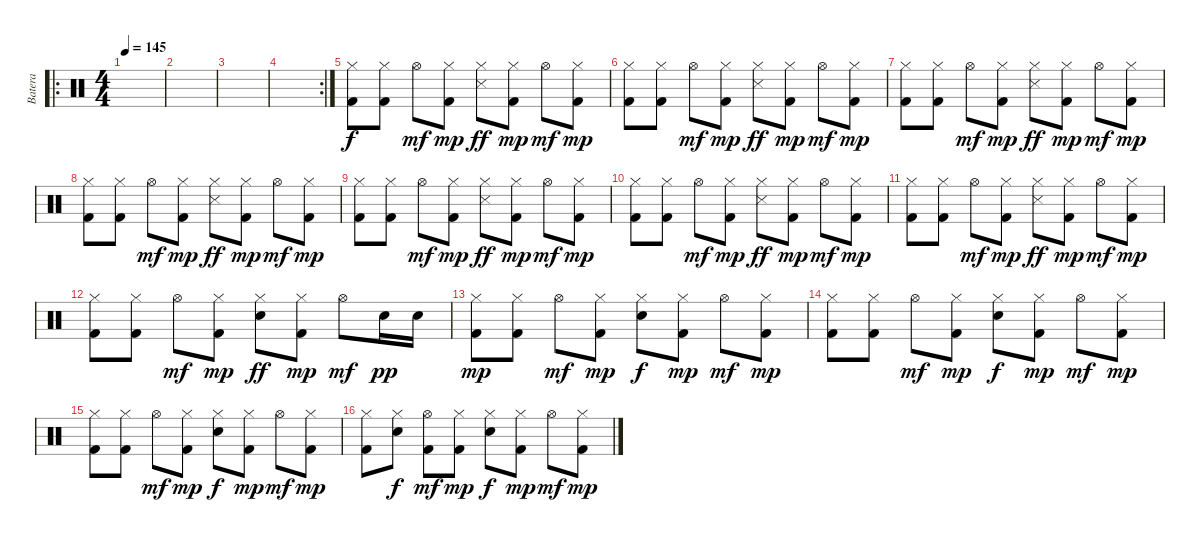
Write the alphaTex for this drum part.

\track ("Batera" "Batera") {instrument percussion}
\staff {score}
\articulation defaults
\ro
\ts (4 4)
\tempo 145
\clef neutral
\ks c
|
|
|
\rc 2
|
("Hi-Hat (closed)" "Kick (hit) 2").8 ("Hi-Hat (closed)" "Kick (hit) 2").8 "Hi-Hat (open)".8{dy mf} ("Hi-Hat (closed)" "Kick (hit) 2").8{dy mp} ("Hi-Hat (closed)" "Snare (side stick) 3").8{dy ff} ("Hi-Hat (closed)" "Kick (hit) 2").8{dy mp} "Hi-Hat (open)".8{dy mf} ("Hi-Hat (closed)" "Kick (hit) 2").8{dy mp} |
("Hi-Hat (closed)" "Kick (hit) 2").8 ("Hi-Hat (closed)" "Kick (hit) 2").8 "Hi-Hat (open)".8{dy mf} ("Hi-Hat (closed)" "Kick (hit) 2").8{dy mp} ("Hi-Hat (closed)" "Snare (side stick) 3").8{dy ff} ("Hi-Hat (closed)" "Kick (hit) 2").8{dy mp} "Hi-Hat (open)".8{dy mf} ("Hi-Hat (closed)" "Kick (hit) 2").8{dy mp} |
("Hi-Hat (closed)" "Kick (hit) 2").8 ("Hi-Hat (closed)" "Kick (hit) 2").8 "Hi-Hat (open)".8{dy mf} ("Hi-Hat (closed)" "Kick (hit) 2").8{dy mp} ("Hi-Hat (closed)" "Snare (side stick) 3").8{dy ff} ("Hi-Hat (closed)" "Kick (hit) 2").8{dy mp} "Hi-Hat (open)".8{dy mf} ("Hi-Hat (closed)" "Kick (hit) 2").8{dy mp} |
("Hi-Hat (closed)" "Kick (hit) 2").8 ("Hi-Hat (closed)" "Kick (hit) 2").8 "Hi-Hat (open)".8{dy mf} ("Hi-Hat (closed)" "Kick (hit) 2").8{dy mp} ("Hi-Hat (closed)" "Snare (side stick) 3").8{dy ff} ("Hi-Hat (closed)" "Kick (hit) 2").8{dy mp} "Hi-Hat (open)".8{dy mf} ("Hi-Hat (closed)" "Kick (hit) 2").8{dy mp} |
("Hi-Hat (closed)" "Kick (hit) 2").8 ("Hi-Hat (closed)" "Kick (hit) 2").8 "Hi-Hat (open)".8{dy mf} ("Hi-Hat (closed)" "Kick (hit) 2").8{dy mp} ("Hi-Hat (closed)" "Snare (side stick) 3").8{dy ff} ("Hi-Hat (closed)" "Kick (hit) 2").8{dy mp} "Hi-Hat (open)".8{dy mf} ("Hi-Hat (closed)" "Kick (hit) 2").8{dy mp} |
("Hi-Hat (closed)" "Kick (hit) 2").8 ("Hi-Hat (closed)" "Kick (hit) 2").8 "Hi-Hat (open)".8{dy mf} ("Hi-Hat (closed)" "Kick (hit) 2").8{dy mp} ("Hi-Hat (closed)" "Snare (side stick) 3").8{dy ff} ("Hi-Hat (closed)" "Kick (hit) 2").8{dy mp} "Hi-Hat (open)".8{dy mf} ("Hi-Hat (closed)" "Kick (hit) 2").8{dy mp} |
("Hi-Hat (closed)" "Kick (hit) 2").8 ("Hi-Hat (closed)" "Kick (hit) 2").8 "Hi-Hat (open)".8{dy mf} ("Hi-Hat (closed)" "Kick (hit) 2").8{dy mp} ("Hi-Hat (closed)" "Snare (side stick) 3").8{dy ff} ("Hi-Hat (closed)" "Kick (hit) 2").8{dy mp} "Hi-Hat (open)".8{dy mf} ("Hi-Hat (closed)" "Kick (hit) 2").8{dy mp} |
("Hi-Hat (closed)" "Kick (hit) 2").8 ("Hi-Hat (closed)" "Kick (hit) 2").8 "Hi-Hat (open)".8{dy mf} ("Hi-Hat (closed)" "Kick (hit) 2").8{dy mp} ("Hi-Hat (closed)" "Electric Snare (hit)").8{dy ff} ("Hi-Hat (closed)" "Kick (hit) 2").8{dy mp} "Hi-Hat (open)".8{dy mf} "Electric Snare (hit)".16{dy pp} "Electric Snare (hit)".16 |
("Hi-Hat (closed)" "Kick (hit) 2").8{dy mp} ("Hi-Hat (closed)" "Kick (hit) 2").8 "Hi-Hat (open)".8{dy mf} ("Hi-Hat (closed)" "Kick (hit) 2").8{dy mp} ("Hi-Hat (closed)" "Electric Snare (hit)").8{dy f} ("Hi-Hat (closed)" "Kick (hit) 2").8{dy mp} "Hi-Hat (open)".8{dy mf} ("Hi-Hat (closed)" "Kick (hit) 2").8{dy mp} |
("Hi-Hat (closed)" "Kick (hit) 2").8 ("Hi-Hat (closed)" "Kick (hit) 2").8 "Hi-Hat (open)".8{dy mf} ("Hi-Hat (closed)" "Kick (hit) 2").8{dy mp} ("Hi-Hat (closed)" "Electric Snare (hit)").8{dy f} ("Hi-Hat (closed)" "Kick (hit) 2").8{dy mp} "Hi-Hat (open)".8{dy mf} ("Hi-Hat (closed)" "Kick (hit) 2").8{dy mp} |
("Hi-Hat (closed)" "Kick (hit) 2").8 ("Hi-Hat (closed)" "Kick (hit) 2").8 "Hi-Hat (open)".8{dy mf} ("Hi-Hat (closed)" "Kick (hit) 2").8{dy mp} ("Hi-Hat (closed)" "Electric Snare (hit)").8{dy f} ("Hi-Hat (closed)" "Kick (hit) 2").8{dy mp} "Hi-Hat (open)".8{dy mf} ("Hi-Hat (closed)" "Kick (hit) 2").8{dy mp} |
("Hi-Hat (closed)" "Kick (hit) 2").8 ("Hi-Hat (closed)" "Electric Snare (hit)").8{dy f} ("Hi-Hat (open)" "Kick (hit) 2").8{dy mf} ("Hi-Hat (closed)" "Kick (hit) 2").8{dy mp} ("Hi-Hat (closed)" "Electric Snare (hit)").8{dy f} ("Hi-Hat (closed)" "Kick (hit) 2").8{dy mp} "Hi-Hat (open)".8{dy mf} ("Hi-Hat (closed)" "Kick (hit) 2").8{dy mp}
